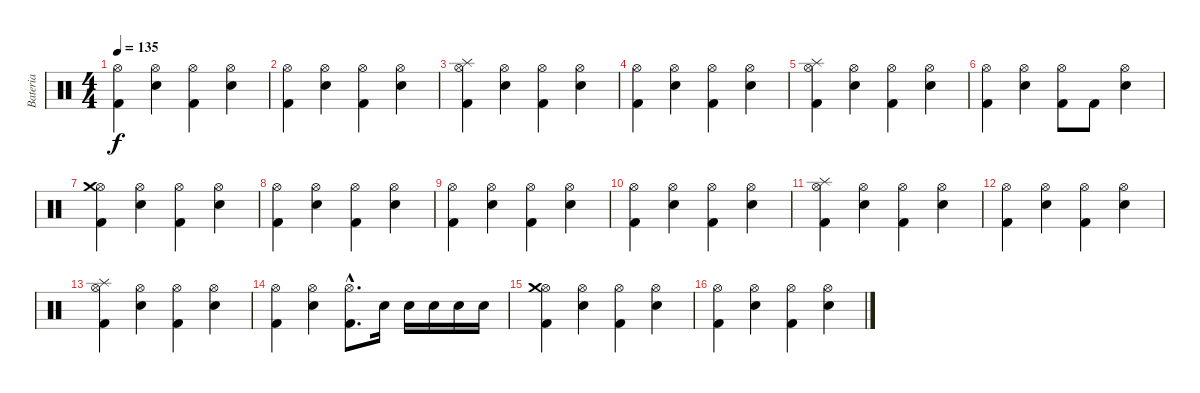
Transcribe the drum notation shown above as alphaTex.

\track ("Bateria" "Bateria") {instrument percussion}
\staff {score}
\articulation defaults
\ts (4 4)
\tempo 135
\clef neutral
\ks c
("Kick (hit) 2" "Hi-Hat (open)").4{dy f} ("Electric Snare (hit)" "Hi-Hat (open)").4 ("Kick (hit) 2" "Hi-Hat (open)").4 ("Electric Snare (hit)" "Hi-Hat (open)").4 |
("Kick (hit) 2" "Hi-Hat (open)").4 ("Electric Snare (hit)" "Hi-Hat (open)").4 ("Kick (hit) 2" "Hi-Hat (open)").4 ("Electric Snare (hit)" "Hi-Hat (open)").4 |
("Kick (hit) 2" "Hi-Hat (open)" "Splash (hit)").4 ("Electric Snare (hit)" "Hi-Hat (open)").4 ("Kick (hit) 2" "Hi-Hat (open)").4 ("Electric Snare (hit)" "Hi-Hat (open)").4 |
("Kick (hit) 2" "Hi-Hat (open)").4 ("Electric Snare (hit)" "Hi-Hat (open)").4 ("Kick (hit) 2" "Hi-Hat (open)").4 ("Electric Snare (hit)" "Hi-Hat (open)").4 |
("Kick (hit) 2" "Hi-Hat (open)" "Splash (hit)").4 ("Electric Snare (hit)" "Hi-Hat (open)").4 ("Kick (hit) 2" "Hi-Hat (open)").4 ("Electric Snare (hit)" "Hi-Hat (open)").4 |
("Kick (hit) 2" "Hi-Hat (open)").4 ("Electric Snare (hit)" "Hi-Hat (open)").4 ("Kick (hit) 2" "Hi-Hat (open)").8 "Kick (hit) 2".8 ("Electric Snare (hit)" "Hi-Hat (open)").4 |
("Kick (hit) 2" "Hi-Hat (open)" "Crash medium (hit)").4 ("Electric Snare (hit)" "Hi-Hat (open)").4 ("Kick (hit) 2" "Hi-Hat (open)").4 ("Electric Snare (hit)" "Hi-Hat (open)").4 |
("Kick (hit) 2" "Hi-Hat (open)").4 ("Electric Snare (hit)" "Hi-Hat (open)").4 ("Kick (hit) 2" "Hi-Hat (open)").4 ("Electric Snare (hit)" "Hi-Hat (open)").4 |
("Kick (hit) 2" "Hi-Hat (open)").4 ("Electric Snare (hit)" "Hi-Hat (open)").4 ("Kick (hit) 2" "Hi-Hat (open)").4 ("Electric Snare (hit)" "Hi-Hat (open)").4 |
("Kick (hit) 2" "Hi-Hat (open)").4 ("Electric Snare (hit)" "Hi-Hat (open)").4 ("Kick (hit) 2" "Hi-Hat (open)").4 ("Electric Snare (hit)" "Hi-Hat (open)").4 |
("Kick (hit) 2" "Hi-Hat (open)" "Splash (hit)").4 ("Electric Snare (hit)" "Hi-Hat (open)").4 ("Kick (hit) 2" "Hi-Hat (open)").4 ("Electric Snare (hit)" "Hi-Hat (open)").4 |
("Kick (hit) 2" "Hi-Hat (open)").4 ("Electric Snare (hit)" "Hi-Hat (open)").4 ("Kick (hit) 2" "Hi-Hat (open)").4 ("Electric Snare (hit)" "Hi-Hat (open)").4 |
("Kick (hit) 2" "Hi-Hat (open)" "Splash (hit)").4 ("Electric Snare (hit)" "Hi-Hat (open)").4 ("Kick (hit) 2" "Hi-Hat (open)").4 ("Electric Snare (hit)" "Hi-Hat (open)").4 |
("Kick (hit) 2" "Hi-Hat (open)").4 ("Electric Snare (hit)" "Hi-Hat (open)").4 ("Kick (hit) 2"{hac} "Hi-Hat (open)"{hac}).8{d} "Electric Snare (hit)".16 "Electric Snare (hit)".16 "Electric Snare (hit)".16 "Electric Snare (hit)".16 "Electric Snare (hit)".16 |
("Kick (hit) 2" "Hi-Hat (open)" "Crash medium (hit)").4 ("Electric Snare (hit)" "Hi-Hat (open)").4 ("Kick (hit) 2" "Hi-Hat (open)").4 ("Electric Snare (hit)" "Hi-Hat (open)").4 |
("Kick (hit) 2" "Hi-Hat (open)").4 ("Electric Snare (hit)" "Hi-Hat (open)").4 ("Kick (hit) 2" "Hi-Hat (open)").4 ("Electric Snare (hit)" "Hi-Hat (open)").4
